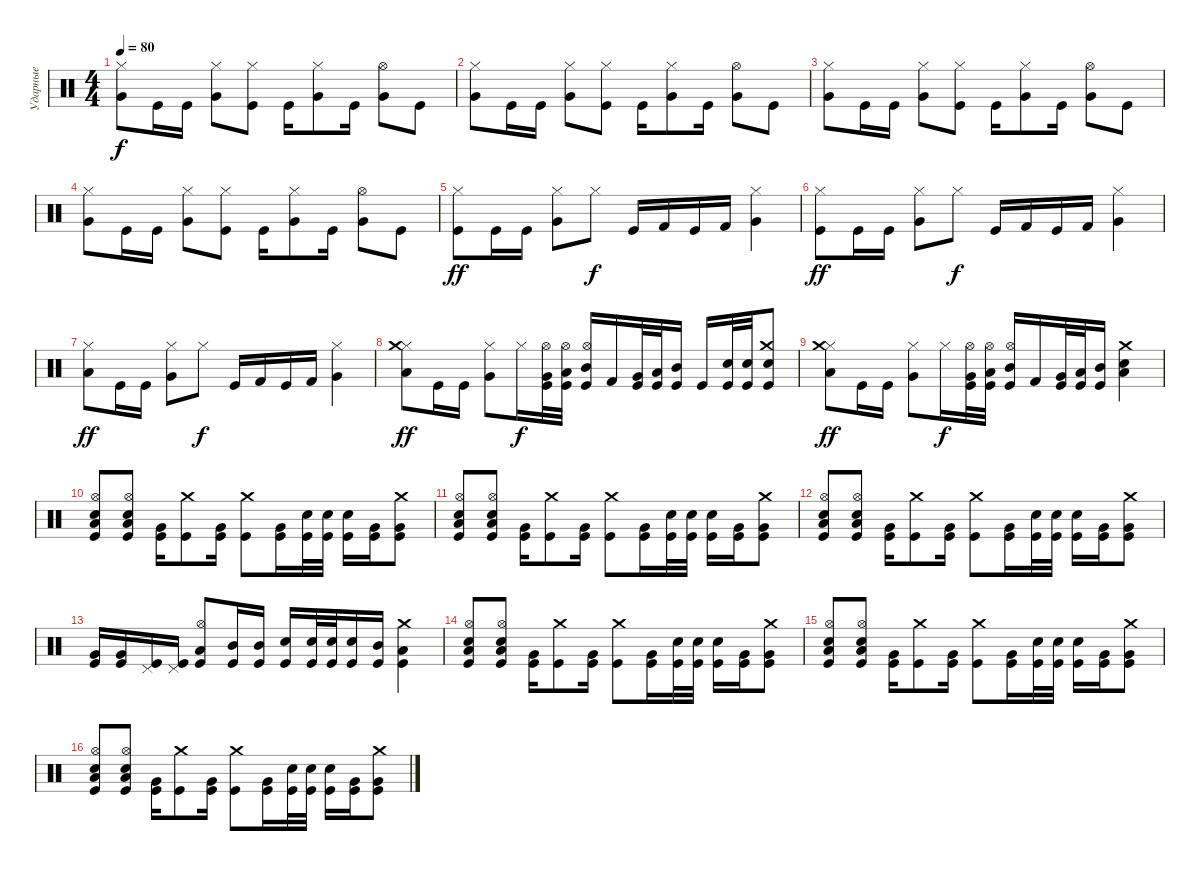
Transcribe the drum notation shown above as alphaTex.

\track ("Ударные" "Ударные") {instrument percussion}
\staff {score}
\articulation defaults
\ts (4 4)
\tempo 80
\clef neutral
\ks c
("Hi-Hat (closed)" "Very Low Tom (hit)").8{dy f} "Kick (hit)".16 "Kick (hit)".16 ("Hi-Hat (closed)" "Very Low Tom (hit)").8 ("Hi-Hat (closed)" "Kick (hit)").8 "Kick (hit)".16 ("Hi-Hat (closed)" "Very Low Tom (hit)").8 "Kick (hit)".16 ("Hi-Hat (open)" "Very Low Tom (hit)").8 "Kick (hit)".8 |
("Hi-Hat (closed)" "Very Low Tom (hit)").8 "Kick (hit)".16 "Kick (hit)".16 ("Hi-Hat (closed)" "Very Low Tom (hit)").8 ("Hi-Hat (closed)" "Kick (hit)").8 "Kick (hit)".16 ("Hi-Hat (closed)" "Very Low Tom (hit)").8 "Kick (hit)".16 ("Hi-Hat (open)" "Very Low Tom (hit)").8 "Kick (hit)".8 |
("Hi-Hat (closed)" "Very Low Tom (hit)").8 "Kick (hit)".16 "Kick (hit)".16 ("Hi-Hat (closed)" "Very Low Tom (hit)").8 ("Hi-Hat (closed)" "Kick (hit)").8 "Kick (hit)".16 ("Hi-Hat (closed)" "Very Low Tom (hit)").8 "Kick (hit)".16 ("Hi-Hat (open)" "Very Low Tom (hit)").8 "Kick (hit)".8 |
("Hi-Hat (closed)" "Very Low Tom (hit)").8 "Kick (hit)".16 "Kick (hit)".16 ("Hi-Hat (closed)" "Very Low Tom (hit)").8 ("Hi-Hat (closed)" "Kick (hit)").8 "Kick (hit)".16 ("Hi-Hat (closed)" "Very Low Tom (hit)").8 "Kick (hit)".16 ("Hi-Hat (open)" "Very Low Tom (hit)").8 "Kick (hit)".8 |
("Hi-Hat (closed)" "Kick (hit)").8{dy ff} "Kick (hit)".16 "Kick (hit)".16 ("Hi-Hat (closed)" "Very Low Tom (hit)").8 "Hi-Hat (closed)".8{dy f} "Kick (hit)".16 "Kick (hit) 2".16 "Kick (hit)".16 "Kick (hit) 2".16 ("Hi-Hat (closed)" "Very Low Tom (hit)").4 |
("Hi-Hat (closed)" "Kick (hit)").8{dy ff} "Kick (hit)".16 "Kick (hit)".16 ("Hi-Hat (closed)" "Very Low Tom (hit)").8 "Hi-Hat (closed)".8{dy f} "Kick (hit)".16 "Kick (hit) 2".16 "Kick (hit)".16 "Kick (hit) 2".16 ("Hi-Hat (closed)" "Very Low Tom (hit)").4 |
("Hi-Hat (closed)" "Low Tom (hit)").8{dy ff} "Kick (hit)".16 "Kick (hit)".16 ("Hi-Hat (closed)" "Very Low Tom (hit)").8 "Hi-Hat (closed)".8{dy f} "Kick (hit)".16 "Kick (hit) 2".16 "Kick (hit)".16 "Kick (hit) 2".16 ("Hi-Hat (closed)" "Very Low Tom (hit)").4 |
("Hi-Hat (closed)" "Crash medium (hit)" "Low Tom (hit)").8{dy ff} "Kick (hit)".16 "Kick (hit)".16 ("Hi-Hat (closed)" "Very Low Tom (hit)").8 "Hi-Hat (closed)".16{dy f} ("Hi-Hat (open)" "Very Low Tom (hit)" "Kick (hit)").32 ("Hi-Hat (open)" "Low Tom (hit)" "Kick (hit)").32 ("Hi-Hat (open)" "Mid Tom (hit)" "Kick (hit)").16 "Kick (hit) 2".16 ("Very Low Tom (hit)" "Kick (hit)").32 ("Low Tom (hit)" "Kick (hit)").32 ("Mid Tom (hit)" "Kick (hit)").16 "Kick (hit)".16 ("Electric Snare (hit)" "Kick (hit)").32 ("Electric Snare (hit)" "Kick (hit)").32 ("Crash medium (hit)" "Electric Snare (hit)" "Kick (hit)").8 |
("Hi-Hat (closed)" "Crash medium (hit)" "Low Tom (hit)").8{dy ff} "Kick (hit)".16 "Kick (hit)".16 ("Hi-Hat (closed)" "Very Low Tom (hit)").8 "Hi-Hat (closed)".16{dy f} ("Hi-Hat (open)" "Very Low Tom (hit)" "Kick (hit)").32 ("Hi-Hat (open)" "Low Tom (hit)" "Kick (hit)").32 ("Hi-Hat (open)" "Mid Tom (hit)" "Kick (hit)").16 "Kick (hit) 2".16 ("Very Low Tom (hit)" "Kick (hit)").32 ("Low Tom (hit)" "Kick (hit)").32 ("Mid Tom (hit)" "Kick (hit)").16 ("Crash medium (hit)" "Snare (hit) 2" "Low Tom (hit)").4 |
("Hi-Hat (open)" "Low Tom (hit)" "Snare (hit) 2" "Kick (hit)").8 ("Hi-Hat (open)" "Low Tom (hit)" "Snare (hit) 2" "Kick (hit)").8 ("Very Low Tom (hit)" "Kick (hit)").16 ("Crash medium (hit)" "Kick (hit)").8 ("Very Low Tom (hit)" "Kick (hit)").16 ("Crash medium (hit)" "Kick (hit)").8 ("Very Low Tom (hit)" "Kick (hit)").16 ("Electric Snare (hit)" "Kick (hit)").32 ("Electric Snare (hit)" "Kick (hit)").32 ("Electric Snare (hit)" "Kick (hit)").16 ("Very Low Tom (hit)" "Kick (hit)").16 ("Crash medium (hit)" "Very Low Tom (hit)" "Kick (hit)").8 |
("Hi-Hat (open)" "Low Tom (hit)" "Snare (hit) 2" "Kick (hit)").8 ("Hi-Hat (open)" "Low Tom (hit)" "Snare (hit) 2" "Kick (hit)").8 ("Very Low Tom (hit)" "Kick (hit)").16 ("Crash medium (hit)" "Kick (hit)").8 ("Very Low Tom (hit)" "Kick (hit)").16 ("Crash medium (hit)" "Kick (hit)").8 ("Very Low Tom (hit)" "Kick (hit)").16 ("Electric Snare (hit)" "Kick (hit)").32 ("Electric Snare (hit)" "Kick (hit)").32 ("Electric Snare (hit)" "Kick (hit)").16 ("Very Low Tom (hit)" "Kick (hit)").16 ("Crash medium (hit)" "Very Low Tom (hit)" "Kick (hit)").8 |
("Hi-Hat (open)" "Low Tom (hit)" "Snare (hit) 2" "Kick (hit)").8 ("Hi-Hat (open)" "Low Tom (hit)" "Snare (hit) 2" "Kick (hit)").8 ("Very Low Tom (hit)" "Kick (hit)").16 ("Crash medium (hit)" "Kick (hit)").8 ("Very Low Tom (hit)" "Kick (hit)").16 ("Crash medium (hit)" "Kick (hit)").8 ("Very Low Tom (hit)" "Kick (hit)").16 ("Electric Snare (hit)" "Kick (hit)").32 ("Electric Snare (hit)" "Kick (hit)").32 ("Electric Snare (hit)" "Kick (hit)").16 ("Very Low Tom (hit)" "Kick (hit)").16 ("Crash medium (hit)" "Very Low Tom (hit)" "Kick (hit)").8 |
("Very Low Tom (hit)" "Kick (hit)").16 ("Very Low Tom (hit)" "Kick (hit)").16 ("Pedal Hi-Hat (hit)" "Kick (hit)").16 ("Pedal Hi-Hat (hit)" "Kick (hit)").16 ("Hi-Hat (open)" "Low Tom (hit)" "Kick (hit)").8 ("Mid Tom (hit)" "Kick (hit)").16 ("Mid Tom (hit)" "Kick (hit)").16 ("Electric Snare (hit)" "Kick (hit)").16 ("Electric Snare (hit)" "Kick (hit)").32 ("Electric Snare (hit)" "Kick (hit)").32 ("Electric Snare (hit)" "Kick (hit)").16 ("Mid Tom (hit)" "Kick (hit)").16 ("Crash medium (hit)" "Low Tom (hit)" "Kick (hit)").4 |
("Hi-Hat (open)" "Low Tom (hit)" "Snare (hit) 2" "Kick (hit)").8 ("Hi-Hat (open)" "Low Tom (hit)" "Snare (hit) 2" "Kick (hit)").8 ("Very Low Tom (hit)" "Kick (hit)").16 ("Crash medium (hit)" "Kick (hit)").8 ("Very Low Tom (hit)" "Kick (hit)").16 ("Crash medium (hit)" "Kick (hit)").8 ("Very Low Tom (hit)" "Kick (hit)").16 ("Electric Snare (hit)" "Kick (hit)").32 ("Electric Snare (hit)" "Kick (hit)").32 ("Electric Snare (hit)" "Kick (hit)").16 ("Very Low Tom (hit)" "Kick (hit)").16 ("Crash medium (hit)" "Very Low Tom (hit)" "Kick (hit)").8 |
("Hi-Hat (open)" "Low Tom (hit)" "Snare (hit) 2" "Kick (hit)").8 ("Hi-Hat (open)" "Low Tom (hit)" "Snare (hit) 2" "Kick (hit)").8 ("Very Low Tom (hit)" "Kick (hit)").16 ("Crash medium (hit)" "Kick (hit)").8 ("Very Low Tom (hit)" "Kick (hit)").16 ("Crash medium (hit)" "Kick (hit)").8 ("Very Low Tom (hit)" "Kick (hit)").16 ("Electric Snare (hit)" "Kick (hit)").32 ("Electric Snare (hit)" "Kick (hit)").32 ("Electric Snare (hit)" "Kick (hit)").16 ("Very Low Tom (hit)" "Kick (hit)").16 ("Crash medium (hit)" "Very Low Tom (hit)" "Kick (hit)").8 |
("Hi-Hat (open)" "Low Tom (hit)" "Snare (hit) 2" "Kick (hit)").8 ("Hi-Hat (open)" "Low Tom (hit)" "Snare (hit) 2" "Kick (hit)").8 ("Very Low Tom (hit)" "Kick (hit)").16 ("Crash medium (hit)" "Kick (hit)").8 ("Very Low Tom (hit)" "Kick (hit)").16 ("Crash medium (hit)" "Kick (hit)").8 ("Very Low Tom (hit)" "Kick (hit)").16 ("Electric Snare (hit)" "Kick (hit)").32 ("Electric Snare (hit)" "Kick (hit)").32 ("Electric Snare (hit)" "Kick (hit)").16 ("Very Low Tom (hit)" "Kick (hit)").16 ("Crash medium (hit)" "Very Low Tom (hit)" "Kick (hit)").8
